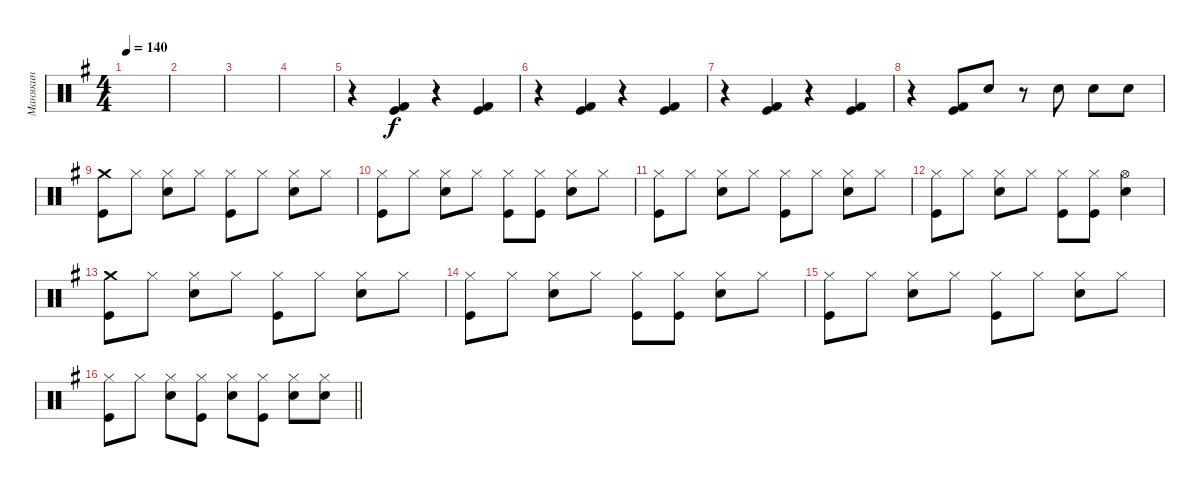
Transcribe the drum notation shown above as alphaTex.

\track ("Манякин" "Манякин") {instrument percussion}
\staff {score}
\articulation defaults
\ts (4 4)
\tempo 140
\clef neutral
\ks g
|
|
|
|
r.4 ("Kick (hit) 2" "Kick (hit)").4 r.4 ("Kick (hit) 2" "Kick (hit)").4 |
r.4 ("Kick (hit) 2" "Kick (hit)").4 r.4 ("Kick (hit) 2" "Kick (hit)").4 |
r.4 ("Kick (hit) 2" "Kick (hit)").4 r.4 ("Kick (hit) 2" "Kick (hit)").4 |
r.4 ("Kick (hit) 2" "Kick (hit)").8 "Snare (hit) 2".8 r.8 "Snare (hit) 2".8 "Snare (hit) 2".8 "Snare (hit) 2".8 |
("Crash medium (hit)" "Kick (hit)").8 "Hi-Hat (closed)".8 ("Hi-Hat (closed)" "Snare (hit) 2").8 "Hi-Hat (closed)".8 ("Hi-Hat (closed)" "Kick (hit)").8 "Hi-Hat (closed)".8 ("Hi-Hat (closed)" "Snare (hit) 2").8 "Hi-Hat (closed)".8 |
("Hi-Hat (closed)" "Kick (hit)").8 "Hi-Hat (closed)".8 ("Hi-Hat (closed)" "Snare (hit) 2").8 "Hi-Hat (closed)".8 ("Hi-Hat (closed)" "Kick (hit)").8 ("Hi-Hat (closed)" "Kick (hit)").8 ("Hi-Hat (closed)" "Snare (hit) 2").8 "Hi-Hat (closed)".8 |
("Hi-Hat (closed)" "Kick (hit)").8 "Hi-Hat (closed)".8 ("Hi-Hat (closed)" "Snare (hit) 2").8 "Hi-Hat (closed)".8 ("Hi-Hat (closed)" "Kick (hit)").8 "Hi-Hat (closed)".8 ("Hi-Hat (closed)" "Snare (hit) 2").8 "Hi-Hat (closed)".8 |
("Hi-Hat (closed)" "Kick (hit)").8 "Hi-Hat (closed)".8 ("Hi-Hat (closed)" "Snare (hit) 2").8 "Hi-Hat (closed)".8 ("Hi-Hat (closed)" "Kick (hit)").8 ("Hi-Hat (closed)" "Kick (hit)").8 ("Hi-Hat (open)" "Snare (hit) 2").4 |
("Crash medium (hit)" "Kick (hit)").8 "Hi-Hat (closed)".8 ("Hi-Hat (closed)" "Snare (hit) 2").8 "Hi-Hat (closed)".8 ("Hi-Hat (closed)" "Kick (hit)").8 "Hi-Hat (closed)".8 ("Hi-Hat (closed)" "Snare (hit) 2").8 "Hi-Hat (closed)".8 |
("Hi-Hat (closed)" "Kick (hit)").8 "Hi-Hat (closed)".8 ("Hi-Hat (closed)" "Snare (hit) 2").8 "Hi-Hat (closed)".8 ("Hi-Hat (closed)" "Kick (hit)").8 ("Hi-Hat (closed)" "Kick (hit)").8 ("Hi-Hat (closed)" "Snare (hit) 2").8 "Hi-Hat (closed)".8 |
("Hi-Hat (closed)" "Kick (hit)").8 "Hi-Hat (closed)".8 ("Hi-Hat (closed)" "Snare (hit) 2").8 "Hi-Hat (closed)".8 ("Hi-Hat (closed)" "Kick (hit)").8 "Hi-Hat (closed)".8 ("Hi-Hat (closed)" "Snare (hit) 2").8 "Hi-Hat (closed)".8 |
\barLineRight lightlight
("Hi-Hat (closed)" "Kick (hit)").8 "Hi-Hat (closed)".8 ("Hi-Hat (closed)" "Snare (hit) 2").8 ("Hi-Hat (closed)" "Kick (hit)").8 ("Hi-Hat (closed)" "Snare (hit) 2").8 ("Hi-Hat (closed)" "Kick (hit)").8 ("Hi-Hat (closed)" "Snare (hit) 2").8 ("Hi-Hat (closed)" "Snare (hit) 2").8
